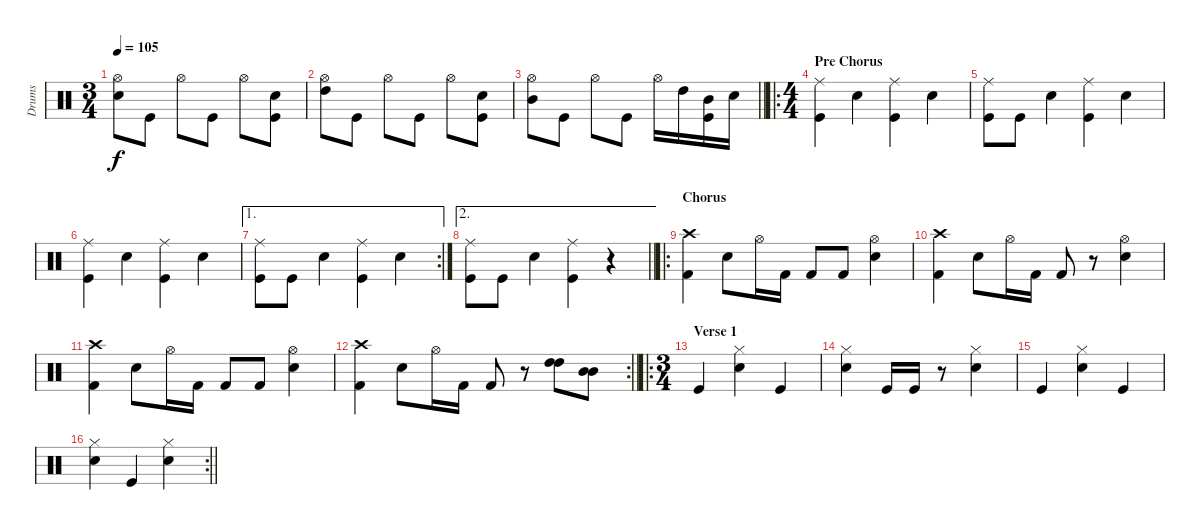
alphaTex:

\track ("Drums" "Drums") {instrument percussion}
\staff {score}
\articulation defaults
\ts (3 4)
\tempo 105
\clef neutral
\ks c
("Hi-Hat (open)" "Snare (hit) 2").8{dy f} "Kick (hit)".8 "Hi-Hat (open)".8 "Kick (hit)".8 "Hi-Hat (open)".8 ("Snare (hit) 2" "Kick (hit)").8 |
("Hi-Hat (open)" "High Tom (hit)").8 "Kick (hit)".8 "Hi-Hat (open)".8 "Kick (hit)".8 "Hi-Hat (open)".8 ("Snare (hit) 2" "Kick (hit)").8 |
\barLineRight lightlight
("Hi-Hat (open)" "Mid Tom (hit)").8 "Kick (hit)".8 "Hi-Hat (open)".8 "Kick (hit)".8 "Hi-Hat (open)".16 "High Tom (hit)".16 ("Kick (hit)" "Mid Tom (hit)").16 "Snare (hit) 2".16 |
\ro
\ts (4 4)
\section ("" "Pre Chorus")
("Kick (hit)" "Ride (middle)").4 "Snare (hit) 2".4 ("Kick (hit)" "Ride (middle)").4 "Snare (hit) 2".4 |
("Kick (hit)" "Ride (middle)").8 "Kick (hit)".8 "Snare (hit) 2".4 ("Kick (hit)" "Ride (middle)").4 "Snare (hit) 2".4 |
("Kick (hit)" "Ride (middle)").4 "Snare (hit) 2".4 ("Kick (hit)" "Ride (middle)").4 "Snare (hit) 2".4 |
\ae 1
\rc 2
("Kick (hit)" "Ride (middle)").8 "Kick (hit)".8 "Snare (hit) 2".4 ("Kick (hit)" "Ride (middle)").4 "Snare (hit) 2".4 |
\ae 2
\barLineRight lightlight
("Kick (hit)" "Ride (middle)").8 "Kick (hit)".8 "Snare (hit) 2".4 ("Kick (hit)" "Ride (middle)").4 r.4 |
\ro
\section ("" "Chorus")
("Crash high (hit)" "Kick (hit) 2").4 "Snare (hit) 2".8 "Hi-Hat (open)".16 "Kick (hit) 2".16 "Kick (hit) 2".8 "Kick (hit) 2".8 ("Snare (hit) 2" "Hi-Hat (open)").4 |
("Crash high (hit)" "Kick (hit) 2").4 "Snare (hit) 2".8 "Hi-Hat (open)".16 "Kick (hit) 2".16 "Kick (hit) 2".8 r.8 ("Snare (hit) 2" "Hi-Hat (open)").4 |
("Crash high (hit)" "Kick (hit) 2").4 "Snare (hit) 2".8 "Hi-Hat (open)".16 "Kick (hit) 2".16 "Kick (hit) 2".8 "Kick (hit) 2".8 ("Snare (hit) 2" "Hi-Hat (open)").4 |
\rc 2
\barLineRight lightlight
("Crash high (hit)" "Kick (hit) 2").4 "Snare (hit) 2".8 "Hi-Hat (open)".16 "Kick (hit) 2".16 "Kick (hit) 2".8 r.8 ("High Tom (hit)" "High Tom (hit)").8 ("Mid Tom (hit)" "Mid Tom (hit)").8 |
\ro
\ts (3 4)
\section ("" "Verse 1")
"Kick (hit)".4 ("Snare (hit) 2" "Hi-Hat (closed)").4 "Kick (hit)".4 |
("Snare (hit) 2" "Hi-Hat (closed)").4 "Kick (hit)".16 "Kick (hit)".16 r.8 ("Snare (hit) 2" "Hi-Hat (closed)").4 |
"Kick (hit)".4 ("Snare (hit) 2" "Hi-Hat (closed)").4 "Kick (hit)".4 |
\rc 2
\barLineRight lightlight
("Snare (hit) 2" "Hi-Hat (closed)").4 "Kick (hit)".4 ("Snare (hit) 2" "Hi-Hat (closed)").4
